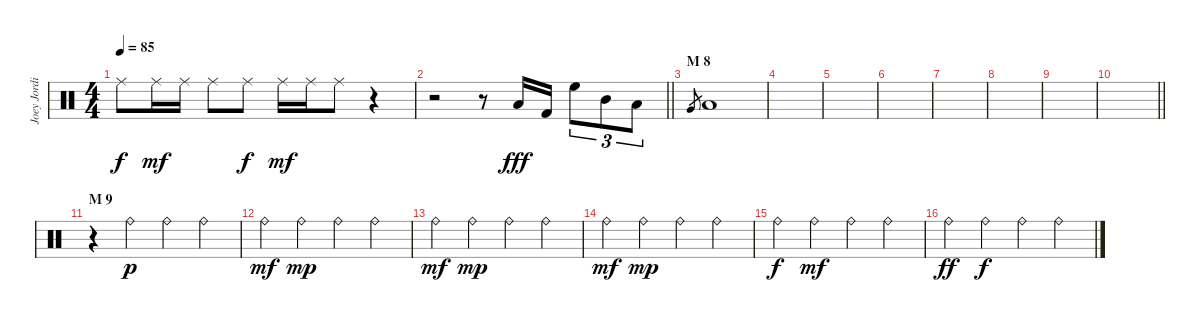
\track ("Joey Jordison" "Joey Jordi") {instrument percussion}
\staff {score}
\articulation defaults
\ts (4 4)
\tempo 85
\clef neutral
\ks c "Ride (middle)".8{dy f} "Ride (middle)".16{dy mf} "Ride (middle)".16 "Ride (middle)".8 "Ride (middle)".8{dy f} "Ride (middle)".16{dy mf} "Ride (middle)".16 "Ride (middle)".8
r.4 |
\barLineRight lightlight
r.2 r.8 "Low Floor Tom (hit)".16{dy fff} "Kick (hit) 2".16 "High Floor Tom (hit)".8{tu (3 2)} "Mid Tom (hit)".8{tu (3 2)} "Low Tom (hit)".8{tu (3 2)} |
\section ("" "M 8")
"Very Low Tom (hit)".8{gr} "Low Floor Tom (hit)".1 |
|
|
|
|
|
|
\barLineRight lightlight
|
\section ("" "M 9")
r.4 "Ride (bell)".4{dy p} "Ride (bell)".4 "Ride (bell)".4 |
"Ride (bell)".4{dy mf} "Ride (bell)".4{dy mp} "Ride (bell)".4 "Ride (bell)".4 |
"Ride (bell)".4{dy mf} "Ride (bell)".4{dy mp} "Ride (bell)".4 "Ride (bell)".4 |
"Ride (bell)".4{dy mf} "Ride (bell)".4{dy mp} "Ride (bell)".4 "Ride (bell)".4 |
"Ride (bell)".4{dy f} "Ride (bell)".4{dy mf} "Ride (bell)".4 "Ride (bell)".4 |
"Ride (bell)".4{dy ff} "Ride (bell)".4{dy f} "Ride (bell)".4 "Ride (bell)".4
